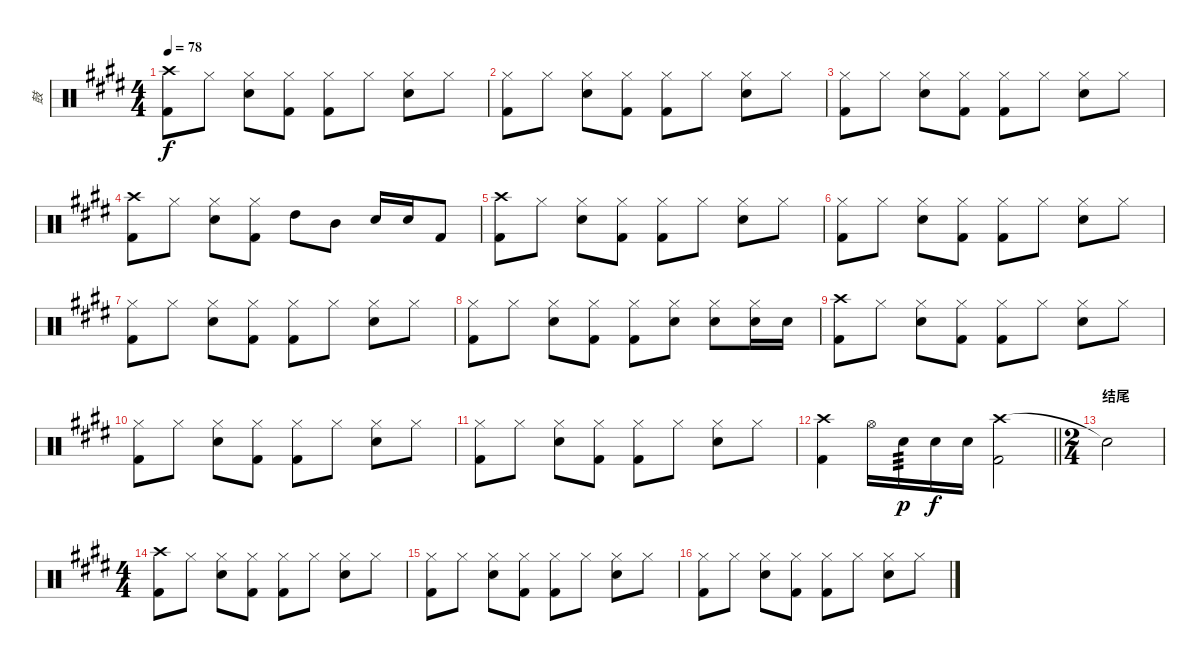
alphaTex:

\track ("鼓" "鼓") {instrument percussion}
\staff {score}
\articulation defaults
\ts (4 4)
\tempo 78
\clef neutral
\ks e
("Crash high (hit)" "Kick (hit) 2").8{dy f} "Hi-Hat (closed)".8 ("Hi-Hat (closed)" "Electric Snare (hit)").8 ("Hi-Hat (closed)" "Kick (hit) 2").8 ("Hi-Hat (closed)" "Kick (hit) 2").8 "Hi-Hat (closed)".8 ("Hi-Hat (closed)" "Electric Snare (hit)").8 "Hi-Hat (closed)".8 |
("Hi-Hat (closed)" "Kick (hit) 2").8 "Hi-Hat (closed)".8 ("Hi-Hat (closed)" "Electric Snare (hit)").8 ("Hi-Hat (closed)" "Kick (hit) 2").8 ("Hi-Hat (closed)" "Kick (hit) 2").8 "Hi-Hat (closed)".8 ("Hi-Hat (closed)" "Electric Snare (hit)").8 "Hi-Hat (closed)".8 |
("Hi-Hat (closed)" "Kick (hit) 2").8 "Hi-Hat (closed)".8 ("Hi-Hat (closed)" "Electric Snare (hit)").8 ("Hi-Hat (closed)" "Kick (hit) 2").8 ("Hi-Hat (closed)" "Kick (hit) 2").8 "Hi-Hat (closed)".8 ("Hi-Hat (closed)" "Electric Snare (hit)").8 "Hi-Hat (closed)".8 |
("Crash high (hit)" "Kick (hit) 2").8 "Hi-Hat (closed)".8 ("Hi-Hat (closed)" "Electric Snare (hit)").8 ("Hi-Hat (closed)" "Kick (hit) 2").8 "High Tom (hit)".8 "Mid Tom (hit)".8 "Electric Snare (hit)".16 "Electric Snare (hit)".16 "Kick (hit) 2".8 |
("Crash high (hit)" "Kick (hit) 2").8 "Hi-Hat (closed)".8 ("Hi-Hat (closed)" "Electric Snare (hit)").8 ("Hi-Hat (closed)" "Kick (hit) 2").8 ("Hi-Hat (closed)" "Kick (hit) 2").8 "Hi-Hat (closed)".8 ("Hi-Hat (closed)" "Electric Snare (hit)").8 "Hi-Hat (closed)".8 |
("Hi-Hat (closed)" "Kick (hit) 2").8 "Hi-Hat (closed)".8 ("Hi-Hat (closed)" "Electric Snare (hit)").8 ("Hi-Hat (closed)" "Kick (hit) 2").8 ("Hi-Hat (closed)" "Kick (hit) 2").8 "Hi-Hat (closed)".8 ("Hi-Hat (closed)" "Electric Snare (hit)").8 "Hi-Hat (closed)".8 |
("Hi-Hat (closed)" "Kick (hit) 2").8 "Hi-Hat (closed)".8 ("Hi-Hat (closed)" "Electric Snare (hit)").8 ("Hi-Hat (closed)" "Kick (hit) 2").8 ("Hi-Hat (closed)" "Kick (hit) 2").8 "Hi-Hat (closed)".8 ("Hi-Hat (closed)" "Electric Snare (hit)").8 "Hi-Hat (closed)".8 |
("Hi-Hat (closed)" "Kick (hit) 2").8 "Hi-Hat (closed)".8 ("Hi-Hat (closed)" "Electric Snare (hit)").8 ("Hi-Hat (closed)" "Kick (hit) 2").8 ("Hi-Hat (closed)" "Kick (hit) 2").8 ("Hi-Hat (closed)" "Electric Snare (hit)").8 ("Hi-Hat (closed)" "Electric Snare (hit)").8 ("Hi-Hat (closed)" "Electric Snare (hit)").16 "Electric Snare (hit)".16 |
("Crash high (hit)" "Kick (hit) 2").8 "Hi-Hat (closed)".8 ("Hi-Hat (closed)" "Electric Snare (hit)").8 ("Hi-Hat (closed)" "Kick (hit) 2").8 ("Hi-Hat (closed)" "Kick (hit) 2").8 "Hi-Hat (closed)".8 ("Hi-Hat (closed)" "Electric Snare (hit)").8 "Hi-Hat (closed)".8 |
("Hi-Hat (closed)" "Kick (hit) 2").8 "Hi-Hat (closed)".8 ("Hi-Hat (closed)" "Electric Snare (hit)").8 ("Hi-Hat (closed)" "Kick (hit) 2").8 ("Hi-Hat (closed)" "Kick (hit) 2").8 "Hi-Hat (closed)".8 ("Hi-Hat (closed)" "Electric Snare (hit)").8 "Hi-Hat (closed)".8 |
("Hi-Hat (closed)" "Kick (hit) 2").8 "Hi-Hat (closed)".8 ("Hi-Hat (closed)" "Electric Snare (hit)").8 ("Hi-Hat (closed)" "Kick (hit) 2").8 ("Hi-Hat (closed)" "Kick (hit) 2").8 "Hi-Hat (closed)".8 ("Hi-Hat (closed)" "Electric Snare (hit)").8 "Hi-Hat (closed)".8 |
\barLineRight lightlight
("Crash high (hit)" "Kick (hit) 2").4 "Hi-Hat (open)".16 "Electric Snare (hit)".16{tp 3 dy p} "Electric Snare (hit)".16{dy f} "Electric Snare (hit)".16 ("Crash high (hit)" "Kick (hit) 2").2 |
\ts (2 4)
\section ("" "结尾")
"Snare (hit)"{t}.2 |
\ts (4 4)
("Crash high (hit)" "Kick (hit) 2").8 "Hi-Hat (closed)".8 ("Hi-Hat (closed)" "Electric Snare (hit)").8 ("Hi-Hat (closed)" "Kick (hit) 2").8 ("Hi-Hat (closed)" "Kick (hit) 2").8 "Hi-Hat (closed)".8 ("Hi-Hat (closed)" "Electric Snare (hit)").8 "Hi-Hat (closed)".8 |
("Hi-Hat (closed)" "Kick (hit) 2").8 "Hi-Hat (closed)".8 ("Hi-Hat (closed)" "Electric Snare (hit)").8 ("Hi-Hat (closed)" "Kick (hit) 2").8 ("Hi-Hat (closed)" "Kick (hit) 2").8 "Hi-Hat (closed)".8 ("Hi-Hat (closed)" "Electric Snare (hit)").8 "Hi-Hat (closed)".8 |
("Hi-Hat (closed)" "Kick (hit) 2").8 "Hi-Hat (closed)".8 ("Hi-Hat (closed)" "Electric Snare (hit)").8 ("Hi-Hat (closed)" "Kick (hit) 2").8 ("Hi-Hat (closed)" "Kick (hit) 2").8 "Hi-Hat (closed)".8 ("Hi-Hat (closed)" "Electric Snare (hit)").8 "Hi-Hat (closed)".8
